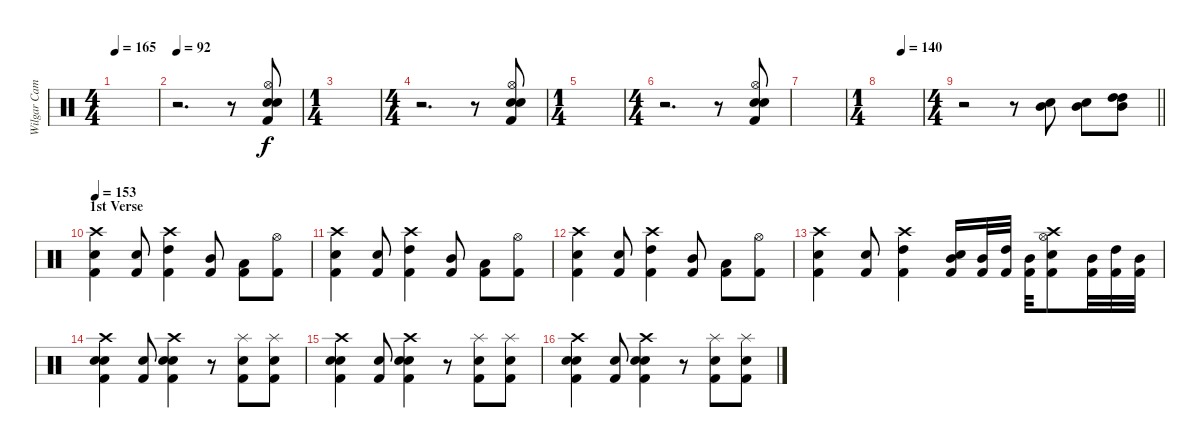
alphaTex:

\track ("Wilgar Campbell" "Wilgar Cam") {instrument percussion}
\staff {score}
\articulation defaults
\ts (4 4)
\tempo 165
\clef neutral
\ks c
|
\tempo 92
r.2{d} r.8 ("Kick (hit) 2" "Snare (hit) 2" "Hi-Hat (open)" "Electric Snare (hit)").8 |
\ts (1 4)
|
\ts (4 4)
r.2{d} r.8 ("Kick (hit) 2" "Snare (hit) 2" "Hi-Hat (open)" "Electric Snare (hit)").8 |
\ts (1 4)
|
\ts (4 4)
r.2{d} r.8 ("Kick (hit) 2" "Snare (hit) 2" "Hi-Hat (open)" "Electric Snare (hit)").8 |
|
\ts (1 4)
\tempo (140 0.5)
|
\ts (4 4)
\barLineRight lightlight
r.2 r.8 ("Electric Snare (hit)" "Mid Tom (hit)").8 ("Snare (hit) 2" "Mid Tom (hit)").8 ("High Tom (hit)" "High Tom (hit)" "Mid Tom (hit)").8 |
\section ("" "1st Verse")
\tempo 153
("Crash high (hit)" "Electric Snare (hit)" "Kick (hit) 2").4 ("Snare (hit) 2" "Kick (hit) 2").8 ("Crash high (hit)" "High Tom (hit)" "Kick (hit) 2").4 ("Mid Tom (hit)" "Kick (hit) 2").8 ("Low Tom (hit)" "Kick (hit) 2").8 ("Hi-Hat (open)" "Kick (hit) 2").8 |
("Crash high (hit)" "Electric Snare (hit)" "Kick (hit) 2").4 ("Snare (hit) 2" "Kick (hit) 2").8 ("Crash high (hit)" "High Tom (hit)" "Kick (hit) 2").4 ("Mid Tom (hit)" "Kick (hit) 2").8 ("Low Tom (hit)" "Kick (hit) 2").8 ("Hi-Hat (open)" "Kick (hit) 2").8 |
("Crash high (hit)" "Electric Snare (hit)" "Kick (hit) 2").4 ("Snare (hit) 2" "Kick (hit) 2").8 ("Crash high (hit)" "High Tom (hit)" "Kick (hit) 2").4 ("Mid Tom (hit)" "Kick (hit) 2").8 ("Low Tom (hit)" "Kick (hit) 2").8 ("Hi-Hat (open)" "Kick (hit) 2").8 |
("Crash high (hit)" "Electric Snare (hit)" "Kick (hit) 2").4 ("Snare (hit) 2" "Kick (hit) 2").8 ("Crash high (hit)" "High Tom (hit)" "Kick (hit) 2").4 ("Snare (hit) 2" "Mid Tom (hit)" "Kick (hit) 2").16 ("Mid Tom (hit)" "Kick (hit) 2").32 ("High Tom (hit)" "Kick (hit) 2").32 ("Mid Tom (hit)" "Kick (hit) 2").32 ("Crash high (hit)" "Electric Snare (hit)" "Hi-Hat (open)" "Kick (hit) 2").8 ("Mid Tom (hit)" "Kick (hit) 2").32 ("High Tom (hit)" "Kick (hit) 2").32 ("Mid Tom (hit)" "Kick (hit) 2").32 |
("Crash high (hit)" "Snare (hit) 2" "Snare (hit) 2" "Kick (hit) 2").4 ("Electric Snare (hit)" "Kick (hit) 2").8 ("Crash high (hit)" "Snare (hit) 2" "Snare (hit) 2" "Kick (hit) 2").4 r.8 ("Splash (hit)" "Kick (hit) 2" "Electric Snare (hit)").8 ("Splash (hit)" "Snare (hit) 2" "Kick (hit) 2").8 |
("Crash high (hit)" "Snare (hit) 2" "Snare (hit) 2" "Kick (hit) 2").4 ("Electric Snare (hit)" "Kick (hit) 2").8 ("Crash high (hit)" "Snare (hit) 2" "Snare (hit) 2" "Kick (hit) 2").4 r.8 ("Splash (hit)" "Kick (hit) 2" "Electric Snare (hit)").8 ("Splash (hit)" "Snare (hit) 2" "Kick (hit) 2").8 |
("Crash high (hit)" "Snare (hit) 2" "Snare (hit) 2" "Kick (hit) 2").4 ("Electric Snare (hit)" "Kick (hit) 2").8 ("Crash high (hit)" "Snare (hit) 2" "Snare (hit) 2" "Kick (hit) 2").4 r.8 ("Splash (hit)" "Kick (hit) 2" "Electric Snare (hit)").8 ("Splash (hit)" "Snare (hit) 2" "Kick (hit) 2").8
